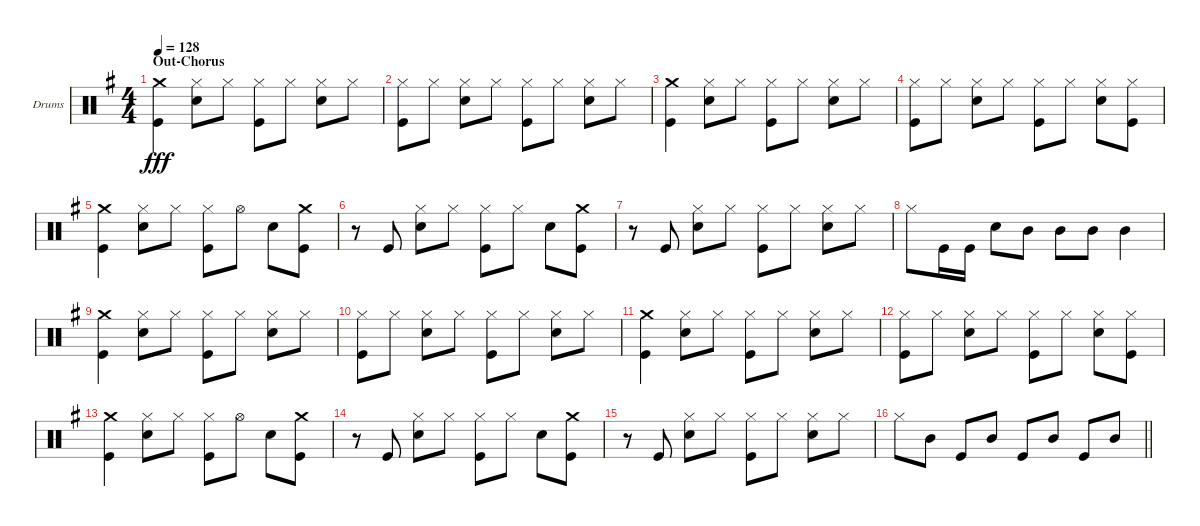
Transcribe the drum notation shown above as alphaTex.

\bracketExtendMode groupsimilarinstruments
\firstSystemTrackNameOrientation horizontal
\otherSystemsTrackNameOrientation horizontal
\track ("Барабаны" "Drums") {instrument percussion}
\staff {score}
\articulation defaults
\ts (4 4)
\section ("" "Out-Chorus")
\tempo 128
\clef neutral
\ks eminor
("Crash medium (hit)" "Kick (hit)").4{dy fff} ("Hi-Hat (closed)" "Snare (hit) 2").8 "Hi-Hat (closed)".8 ("Hi-Hat (closed)" "Kick (hit)").8 "Hi-Hat (closed)".8 ("Hi-Hat (closed)" "Snare (hit) 2").8 "Hi-Hat (closed)".8 |
("Hi-Hat (closed)" "Kick (hit)").8 "Hi-Hat (closed)".8 ("Hi-Hat (closed)" "Snare (hit) 2").8 "Hi-Hat (closed)".8 ("Hi-Hat (closed)" "Kick (hit)").8 "Hi-Hat (closed)".8 ("Hi-Hat (closed)" "Snare (hit) 2").8 "Hi-Hat (closed)".8 |
("Crash medium (hit)" "Kick (hit)").4 ("Hi-Hat (closed)" "Snare (hit) 2").8 "Hi-Hat (closed)".8 ("Hi-Hat (closed)" "Kick (hit)").8 "Hi-Hat (closed)".8 ("Hi-Hat (closed)" "Snare (hit) 2").8 "Hi-Hat (closed)".8 |
("Hi-Hat (closed)" "Kick (hit)").8 "Hi-Hat (closed)".8 ("Hi-Hat (closed)" "Snare (hit) 2").8 "Hi-Hat (closed)".8 ("Hi-Hat (closed)" "Kick (hit)").8 "Hi-Hat (closed)".8 ("Hi-Hat (closed)" "Snare (hit) 2").8 ("Hi-Hat (closed)" "Kick (hit)").8 |
("Crash medium (hit)" "Kick (hit)").4 ("Hi-Hat (closed)" "Snare (hit) 2").8 "Hi-Hat (closed)".8 ("Hi-Hat (closed)" "Kick (hit)").8 "Hi-Hat (open)".8 "Snare (hit) 2".8 ("Kick (hit)" "Crash medium (hit)").8 |
r.8 "Kick (hit)".8 ("Hi-Hat (closed)" "Snare (hit) 2").8 "Hi-Hat (closed)".8 ("Hi-Hat (closed)" "Kick (hit)").8 "Hi-Hat (closed)".8 "Snare (hit) 2".8 ("Kick (hit)" "Crash medium (hit)").8 |
r.8 "Kick (hit)".8 ("Hi-Hat (closed)" "Snare (hit) 2").8 "Hi-Hat (closed)".8 ("Hi-Hat (closed)" "Kick (hit)").8 "Hi-Hat (closed)".8 ("Hi-Hat (closed)" "Snare (hit) 2").8 "Hi-Hat (closed)".8 |
"Hi-Hat (closed)".8 "Kick (hit)".16 "Kick (hit)".16 "Snare (hit) 2".8 "Mid Tom (hit)".8 "Mid Tom (hit)".8 "Mid Tom (hit)".8 "Mid Tom (hit)".4 |
("Crash medium (hit)" "Kick (hit)").4 ("Hi-Hat (closed)" "Snare (hit) 2").8 "Hi-Hat (closed)".8 ("Hi-Hat (closed)" "Kick (hit)").8 "Hi-Hat (closed)".8 ("Hi-Hat (closed)" "Snare (hit) 2").8 "Hi-Hat (closed)".8 |
("Hi-Hat (closed)" "Kick (hit)").8 "Hi-Hat (closed)".8 ("Hi-Hat (closed)" "Snare (hit) 2").8 "Hi-Hat (closed)".8 ("Hi-Hat (closed)" "Kick (hit)").8 "Hi-Hat (closed)".8 ("Hi-Hat (closed)" "Snare (hit) 2").8 "Hi-Hat (closed)".8 |
("Crash medium (hit)" "Kick (hit)").4 ("Hi-Hat (closed)" "Snare (hit) 2").8 "Hi-Hat (closed)".8 ("Hi-Hat (closed)" "Kick (hit)").8 "Hi-Hat (closed)".8 ("Hi-Hat (closed)" "Snare (hit) 2").8 "Hi-Hat (closed)".8 |
("Hi-Hat (closed)" "Kick (hit)").8 "Hi-Hat (closed)".8 ("Hi-Hat (closed)" "Snare (hit) 2").8 "Hi-Hat (closed)".8 ("Hi-Hat (closed)" "Kick (hit)").8 "Hi-Hat (closed)".8 ("Hi-Hat (closed)" "Snare (hit) 2").8 ("Hi-Hat (closed)" "Kick (hit)").8 |
("Crash medium (hit)" "Kick (hit)").4 ("Hi-Hat (closed)" "Snare (hit) 2").8 "Hi-Hat (closed)".8 ("Hi-Hat (closed)" "Kick (hit)").8 "Hi-Hat (open)".8 "Snare (hit) 2".8 ("Kick (hit)" "Crash medium (hit)").8 |
r.8 "Kick (hit)".8 ("Hi-Hat (closed)" "Snare (hit) 2").8 "Hi-Hat (closed)".8 ("Hi-Hat (closed)" "Kick (hit)").8 "Hi-Hat (closed)".8 "Snare (hit) 2".8 ("Kick (hit)" "Crash medium (hit)").8 |
r.8 "Kick (hit)".8 ("Hi-Hat (closed)" "Snare (hit) 2").8 "Hi-Hat (closed)".8 ("Hi-Hat (closed)" "Kick (hit)").8 "Hi-Hat (closed)".8 ("Hi-Hat (closed)" "Snare (hit) 2").8 "Hi-Hat (closed)".8 |
\barLineRight lightlight "Hi-Hat (closed)".8 "Mid Tom (hit)".8 "Kick (hit)".8 "Mid Tom (hit)".8 "Kick (hit)".8 "Mid Tom (hit)".8 "Kick (hit)".8 "Mid Tom (hit)".8
